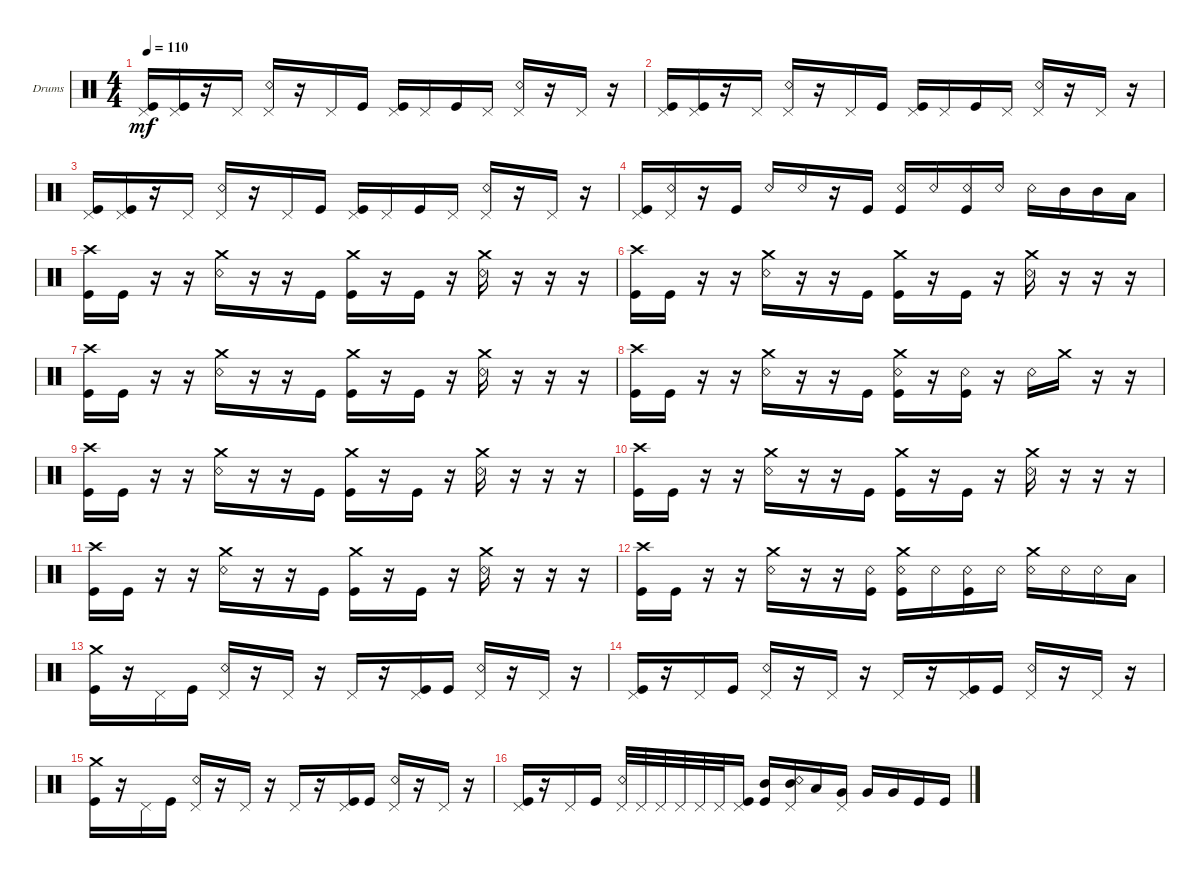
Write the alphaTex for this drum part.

\defaultSystemsLayout 4
\bracketExtendMode groupsimilarinstruments
\firstSystemTrackNameOrientation horizontal
\otherSystemsTrackNameOrientation horizontal
\track ("Drumkit" "Drums") {instrument percussion}
\staff {score}
\articulation defaults
\ts (4 4)
\tempo 110
\clef neutral
\ks c
("Pedal Hi-Hat (hit)" "Kick (hit)").16{dy mf} ("Pedal Hi-Hat (hit)" "Kick (hit)").16 r.16 "Pedal Hi-Hat (hit)".16 ("Pedal Hi-Hat (hit)" "Snare (rim shot)").16 r.16 "Pedal Hi-Hat (hit)".16 "Kick (hit)".16 ("Pedal Hi-Hat (hit)" "Kick (hit)").16 "Pedal Hi-Hat (hit)".16 "Kick (hit)".16 "Pedal Hi-Hat (hit)".16 ("Pedal Hi-Hat (hit)" "Snare (rim shot)").16 r.16 "Pedal Hi-Hat (hit)".16 r.16 |
("Pedal Hi-Hat (hit)" "Kick (hit)").16 ("Pedal Hi-Hat (hit)" "Kick (hit)").16 r.16 "Pedal Hi-Hat (hit)".16 ("Pedal Hi-Hat (hit)" "Snare (rim shot)").16 r.16 "Pedal Hi-Hat (hit)".16 "Kick (hit)".16 ("Pedal Hi-Hat (hit)" "Kick (hit)").16 "Pedal Hi-Hat (hit)".16 "Kick (hit)".16 "Pedal Hi-Hat (hit)".16 ("Pedal Hi-Hat (hit)" "Snare (rim shot)").16 r.16 "Pedal Hi-Hat (hit)".16 r.16 |
("Pedal Hi-Hat (hit)" "Kick (hit)").16 ("Pedal Hi-Hat (hit)" "Kick (hit)").16 r.16 "Pedal Hi-Hat (hit)".16 ("Pedal Hi-Hat (hit)" "Snare (rim shot)").16 r.16 "Pedal Hi-Hat (hit)".16 "Kick (hit)".16 ("Pedal Hi-Hat (hit)" "Kick (hit)").16 "Pedal Hi-Hat (hit)".16 "Kick (hit)".16 "Pedal Hi-Hat (hit)".16 ("Pedal Hi-Hat (hit)" "Snare (rim shot)").16 r.16 "Pedal Hi-Hat (hit)".16 r.16 |
("Pedal Hi-Hat (hit)" "Kick (hit)").16 ("Pedal Hi-Hat (hit)" "Snare (rim shot)").16 r.16 "Kick (hit)".16 "Snare (rim shot)".16 "Snare (rim shot)".16 r.16 "Kick (hit)".16 ("Kick (hit)" "Snare (rim shot)").16 "Snare (rim shot)".16 ("Kick (hit)" "Snare (rim shot)").16 "Snare (rim shot)".16 "Snare (rim shot)".16 "Mid Tom (hit)".16 "Mid Tom (hit)".16 "Low Tom (hit)".16 |
("Kick (hit)" "Crash high (hit)").16 "Kick (hit)".16 r.16 r.16 ("Snare (rim shot)" "Crash medium (hit)").16 r.16 r.16 "Kick (hit)".16 ("Kick (hit)" "Crash medium (hit)").16 r.16 "Kick (hit)".16 r.16 ("Snare (rim shot)" "Crash medium (hit)").16 r.16 r.16 r.16 |
("Kick (hit)" "Crash high (hit)").16 "Kick (hit)".16 r.16 r.16 ("Snare (rim shot)" "Crash medium (hit)").16 r.16 r.16 "Kick (hit)".16 ("Kick (hit)" "Crash medium (hit)").16 r.16 "Kick (hit)".16 r.16 ("Snare (rim shot)" "Crash medium (hit)").16 r.16 r.16 r.16 |
("Kick (hit)" "Crash high (hit)").16 "Kick (hit)".16 r.16 r.16 ("Snare (rim shot)" "Crash medium (hit)").16 r.16 r.16 "Kick (hit)".16 ("Kick (hit)" "Crash medium (hit)").16 r.16 "Kick (hit)".16 r.16 ("Snare (rim shot)" "Crash medium (hit)").16 r.16 r.16 r.16 |
("Kick (hit)" "Crash high (hit)").16 "Kick (hit)".16 r.16 r.16 ("Snare (rim shot)" "Crash medium (hit)").16 r.16 r.16 "Kick (hit)".16 ("Kick (hit)" "Crash medium (hit)" "Snare (rim shot)").16 r.16 ("Kick (hit)" "Snare (rim shot)").16 r.16 "Snare (rim shot)".16 "Crash medium (hit)".16 r.16 r.16 |
("Kick (hit)" "Crash high (hit)").16 "Kick (hit)".16 r.16 r.16 ("Snare (rim shot)" "Crash medium (hit)").16 r.16 r.16 "Kick (hit)".16 ("Kick (hit)" "Crash medium (hit)").16 r.16 "Kick (hit)".16 r.16 ("Snare (rim shot)" "Crash medium (hit)").16 r.16 r.16 r.16 |
("Kick (hit)" "Crash high (hit)").16 "Kick (hit)".16 r.16 r.16 ("Snare (rim shot)" "Crash medium (hit)").16 r.16 r.16 "Kick (hit)".16 ("Kick (hit)" "Crash medium (hit)").16 r.16 "Kick (hit)".16 r.16 ("Snare (rim shot)" "Crash medium (hit)").16 r.16 r.16 r.16 |
("Kick (hit)" "Crash high (hit)").16 "Kick (hit)".16 r.16 r.16 ("Snare (rim shot)" "Crash medium (hit)").16 r.16 r.16 "Kick (hit)".16 ("Kick (hit)" "Crash medium (hit)").16 r.16 "Kick (hit)".16 r.16 ("Snare (rim shot)" "Crash medium (hit)").16 r.16 r.16 r.16 |
("Kick (hit)" "Crash high (hit)").16 "Kick (hit)".16 r.16 r.16 ("Snare (rim shot)" "Crash medium (hit)").16 r.16 r.16 ("Kick (hit)" "Snare (rim shot)").16 ("Kick (hit)" "Crash medium (hit)" "Snare (rim shot)").16 "Snare (rim shot)".16 ("Kick (hit)" "Snare (rim shot)").16 "Snare (rim shot)".16 ("Snare (rim shot)" "Crash medium (hit)").16 "Snare (rim shot)".16 "Snare (rim shot)".16 "Low Tom (hit)".16 |
("Crash medium (hit)" "Kick (hit)").16 r.16 "Pedal Hi-Hat (hit)".16 "Kick (hit)".16 ("Pedal Hi-Hat (hit)" "Snare (rim shot)").16 r.16 "Pedal Hi-Hat (hit)".16 r.16 "Pedal Hi-Hat (hit)".16 r.16 ("Pedal Hi-Hat (hit)" "Kick (hit)").16 "Kick (hit)".16 ("Pedal Hi-Hat (hit)" "Snare (rim shot)").16 r.16 "Pedal Hi-Hat (hit)".16 r.16 |
("Kick (hit)" "Pedal Hi-Hat (hit)").16 r.16 "Pedal Hi-Hat (hit)".16 "Kick (hit)".16 ("Pedal Hi-Hat (hit)" "Snare (rim shot)").16 r.16 "Pedal Hi-Hat (hit)".16 r.16 "Pedal Hi-Hat (hit)".16 r.16 ("Pedal Hi-Hat (hit)" "Kick (hit)").16 "Kick (hit)".16 ("Pedal Hi-Hat (hit)" "Snare (rim shot)").16 r.16 "Pedal Hi-Hat (hit)".16 r.16 |
("Crash medium (hit)" "Kick (hit)").16 r.16 "Pedal Hi-Hat (hit)".16 "Kick (hit)".16 ("Pedal Hi-Hat (hit)" "Snare (rim shot)").16 r.16 "Pedal Hi-Hat (hit)".16 r.16 "Pedal Hi-Hat (hit)".16 r.16 ("Pedal Hi-Hat (hit)" "Kick (hit)").16 "Kick (hit)".16 ("Pedal Hi-Hat (hit)" "Snare (rim shot)").16 r.16 "Pedal Hi-Hat (hit)".16 r.16 |
("Kick (hit)" "Pedal Hi-Hat (hit)").16 r.16 "Pedal Hi-Hat (hit)".16 "Kick (hit)".16 ("Pedal Hi-Hat (hit)" "Snare (rim shot)").32 "Pedal Hi-Hat (hit)".32 "Pedal Hi-Hat (hit)".32 "Pedal Hi-Hat (hit)".32 "Pedal Hi-Hat (hit)".32 "Pedal Hi-Hat (hit)".32 ("Pedal Hi-Hat (hit)" "Kick (hit)").16 ("Kick (hit)" "Mid Tom (hit)").16 ("Pedal Hi-Hat (hit)" "Snare (rim shot)" "Mid Tom (hit)").16 "Low Tom (hit)".16 ("Pedal Hi-Hat (hit)" "Very Low Tom (hit)").16 "Very Low Tom (hit)".16 "Very Low Tom (hit)".16 "Kick (hit)".16 "Kick (hit)".16
